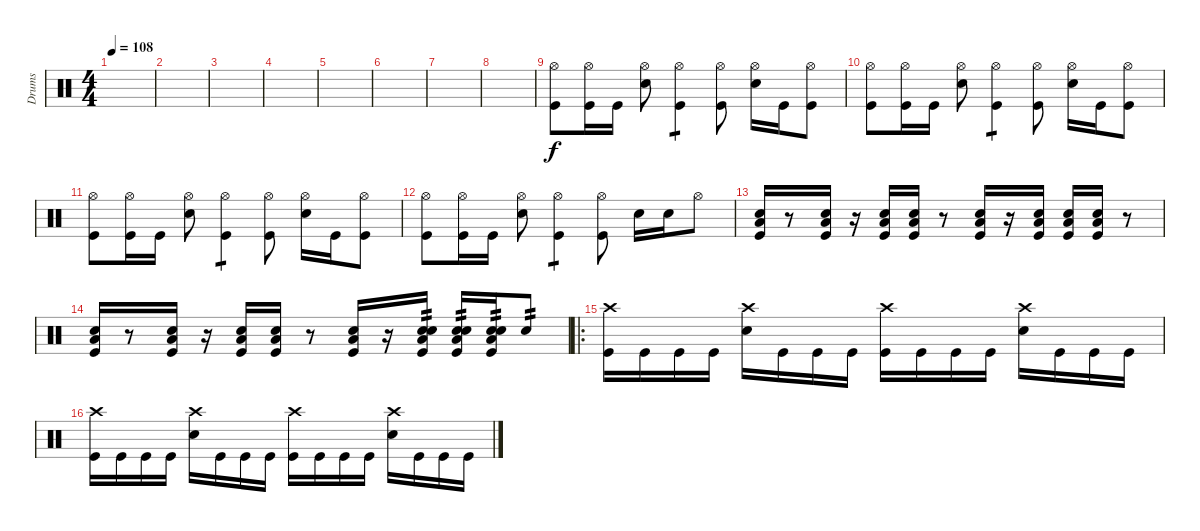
\track ("Drums" "Drums") {instrument percussion}
\staff {score}
\articulation defaults
\ts (4 4)
\tempo 108
\clef neutral
\ks c
|
|
|
|
|
|
|
|
("Hi-Hat (open)" "Kick (hit)").8 ("Hi-Hat (open)" "Kick (hit)").16 "Kick (hit)".16 ("Hi-Hat (open)" "Snare (hit) 2").8 ("Hi-Hat (open)" "Kick (hit)").4{tp 1} ("Hi-Hat (open)" "Kick (hit)").8 ("Hi-Hat (open)" "Snare (hit) 2").16 "Kick (hit)".16 ("Hi-Hat (open)" "Kick (hit)").8 |
("Hi-Hat (open)" "Kick (hit)").8 ("Hi-Hat (open)" "Kick (hit)").16 "Kick (hit)".16 ("Hi-Hat (open)" "Snare (hit) 2").8 ("Hi-Hat (open)" "Kick (hit)").4{tp 1} ("Hi-Hat (open)" "Kick (hit)").8 ("Hi-Hat (open)" "Snare (hit) 2").16 "Kick (hit)".16 ("Hi-Hat (open)" "Kick (hit)").8 |
("Hi-Hat (open)" "Kick (hit)").8 ("Hi-Hat (open)" "Kick (hit)").16 "Kick (hit)".16 ("Hi-Hat (open)" "Snare (hit) 2").8 ("Hi-Hat (open)" "Kick (hit)").4{tp 1} ("Hi-Hat (open)" "Kick (hit)").8 ("Hi-Hat (open)" "Snare (hit) 2").16 "Kick (hit)".16 ("Hi-Hat (open)" "Kick (hit)").8 |
("Hi-Hat (open)" "Kick (hit)").8 ("Hi-Hat (open)" "Kick (hit)").16 "Kick (hit)".16 ("Hi-Hat (open)" "Snare (hit) 2").8 ("Hi-Hat (open)" "Kick (hit)").4{tp 1} ("Hi-Hat (open)" "Kick (hit)").8 "Snare (hit) 2".16 "Snare (hit) 2".16 "Hi-Hat (open)".8 |
("Low Floor Tom (hit)" "Snare (hit) 2" "Kick (hit)").16 r.8 ("Low Floor Tom (hit)" "Snare (hit) 2" "Kick (hit)").16 r.16 ("Low Floor Tom (hit)" "Snare (hit) 2" "Kick (hit)").16 ("Low Floor Tom (hit)" "Snare (hit) 2" "Kick (hit)").16 r.8 ("Low Floor Tom (hit)" "Snare (hit) 2" "Kick (hit)").16 r.16 ("Low Floor Tom (hit)" "Snare (hit) 2" "Kick (hit)").16 ("Low Floor Tom (hit)" "Snare (hit) 2" "Kick (hit)").16 ("Low Floor Tom (hit)" "Snare (hit) 2" "Kick (hit)").16 r.8 |
("Low Floor Tom (hit)" "Snare (hit) 2" "Kick (hit)").16 r.8 ("Low Floor Tom (hit)" "Snare (hit) 2" "Kick (hit)").16 r.16 ("Low Floor Tom (hit)" "Snare (hit) 2" "Kick (hit)").16 ("Low Floor Tom (hit)" "Snare (hit) 2" "Kick (hit)").16 r.8 ("Low Floor Tom (hit)" "Snare (hit) 2" "Kick (hit)").16 r.16 ("Snare (hit) 2" "Low Floor Tom (hit)" "Snare (hit) 2" "Kick (hit)").16{tp 2} ("Snare (hit) 2" "Low Floor Tom (hit)" "Snare (hit) 2" "Kick (hit)").16{tp 2} ("Snare (hit) 2" "Low Floor Tom (hit)" "Snare (hit) 2" "Kick (hit)").16{tp 2} "Snare (hit) 2".8{tp 2} |
\ro
("Crash high (hit)" "Kick (hit)").16 "Kick (hit)".16 "Kick (hit)".16 "Kick (hit)".16 ("Crash high (hit)" "Snare (hit) 2").16 "Kick (hit)".16 "Kick (hit)".16 "Kick (hit)".16 ("Crash high (hit)" "Kick (hit)").16 "Kick (hit)".16 "Kick (hit)".16 "Kick (hit)".16 ("Crash high (hit)" "Snare (hit) 2").16 "Kick (hit)".16 "Kick (hit)".16 "Kick (hit)".16 |
("Crash high (hit)" "Kick (hit)").16 "Kick (hit)".16 "Kick (hit)".16 "Kick (hit)".16 ("Crash high (hit)" "Snare (hit) 2").16 "Kick (hit)".16 "Kick (hit)".16 "Kick (hit)".16 ("Crash high (hit)" "Kick (hit)").16 "Kick (hit)".16 "Kick (hit)".16 "Kick (hit)".16 ("Crash high (hit)" "Snare (hit) 2").16 "Kick (hit)".16 "Kick (hit)".16 "Kick (hit)".16
